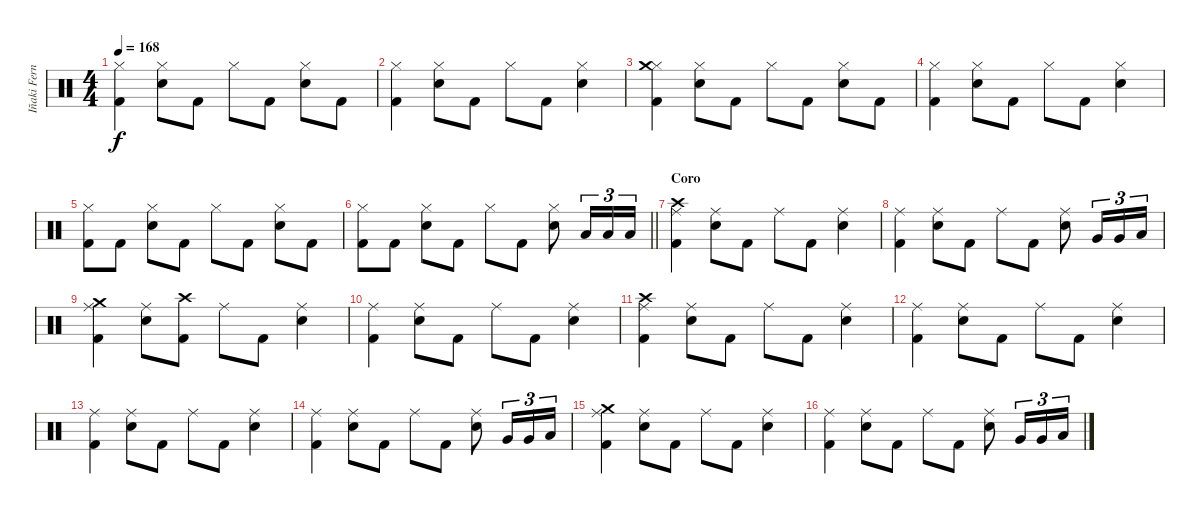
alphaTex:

\track ("Iñaki Fernández" "Iñaki Fern") {instrument percussion}
\staff {score}
\articulation defaults
\ts (4 4)
\tempo 168
\clef neutral
\ks c
("Hi-Hat (closed)" "Kick (hit) 2").4{dy f} ("Hi-Hat (closed)" "Snare (hit) 2").8 "Kick (hit) 2".8 "Hi-Hat (closed)".8 "Kick (hit) 2".8 ("Hi-Hat (closed)" "Snare (hit) 2").8 "Kick (hit) 2".8 |
("Hi-Hat (closed)" "Kick (hit) 2").4 ("Hi-Hat (closed)" "Snare (hit) 2").8 "Kick (hit) 2".8 "Hi-Hat (closed)".8 "Kick (hit) 2".8 ("Hi-Hat (closed)" "Snare (hit) 2").4 |
("Hi-Hat (closed)" "Crash medium (hit)" "Kick (hit) 2").4 ("Hi-Hat (closed)" "Snare (hit) 2").8 "Kick (hit) 2".8 "Hi-Hat (closed)".8 "Kick (hit) 2".8 ("Hi-Hat (closed)" "Snare (hit) 2").8 "Kick (hit) 2".8 |
("Hi-Hat (closed)" "Kick (hit) 2").4 ("Hi-Hat (closed)" "Snare (hit) 2").8 "Kick (hit) 2".8 "Hi-Hat (closed)".8 "Kick (hit) 2".8 ("Hi-Hat (closed)" "Snare (hit) 2").4 |
("Hi-Hat (closed)" "Kick (hit) 2").8 "Kick (hit) 2".8 ("Hi-Hat (closed)" "Snare (hit) 2").8 "Kick (hit) 2".8 "Hi-Hat (closed)".8 "Kick (hit) 2".8 ("Hi-Hat (closed)" "Snare (hit) 2").8 "Kick (hit) 2".8 |
\barLineRight lightlight
("Hi-Hat (closed)" "Kick (hit) 2").8 "Kick (hit) 2".8 ("Hi-Hat (closed)" "Snare (hit) 2").8 "Kick (hit) 2".8 "Hi-Hat (closed)".8 "Kick (hit) 2".8 ("Hi-Hat (closed)" "Snare (hit) 2").8 "Low Floor Tom (hit)".16{tu (3 2)} "Low Floor Tom (hit)".16{tu (3 2)} "Low Floor Tom (hit)".16{tu (3 2)} |
\section ("" "Coro")
("Ride (middle)" "Crash high (hit)" "Kick (hit) 2").4 ("Ride (middle)" "Snare (hit) 2").8 "Kick (hit) 2".8 "Ride (middle)".8 "Kick (hit) 2".8 ("Ride (middle)" "Snare (hit) 2").4 |
("Ride (middle)" "Kick (hit) 2").4 ("Ride (middle)" "Snare (hit) 2").8 "Kick (hit) 2".8 "Ride (middle)".8 "Kick (hit) 2".8 ("Ride (middle)" "Snare (hit) 2").8 "Very Low Tom (hit)".16{tu (3 2)} "Very Low Tom (hit)".16{tu (3 2)} "Low Floor Tom (hit)".16{tu (3 2)} |
("Ride (middle)" "Crash medium (hit)" "Kick (hit) 2").4 ("Ride (middle)" "Snare (hit) 2").8 ("Crash high (hit)" "Kick (hit) 2").8 "Ride (middle)".8 "Kick (hit) 2".8 ("Ride (middle)" "Snare (hit) 2").4 |
("Ride (middle)" "Kick (hit) 2").4 ("Ride (middle)" "Snare (hit) 2").8 "Kick (hit) 2".8 "Ride (middle)".8 "Kick (hit) 2".8 ("Ride (middle)" "Snare (hit) 2").4 |
("Ride (middle)" "Crash high (hit)" "Kick (hit) 2").4 ("Ride (middle)" "Snare (hit) 2").8 "Kick (hit) 2".8 "Ride (middle)".8 "Kick (hit) 2".8 ("Ride (middle)" "Snare (hit) 2").4 |
("Ride (middle)" "Kick (hit) 2").4 ("Ride (middle)" "Snare (hit) 2").8 "Kick (hit) 2".8 "Ride (middle)".8 "Kick (hit) 2".8 ("Ride (middle)" "Snare (hit) 2").4 |
("Ride (middle)" "Kick (hit) 2").4 ("Ride (middle)" "Snare (hit) 2").8 "Kick (hit) 2".8 "Ride (middle)".8 "Kick (hit) 2".8 ("Ride (middle)" "Snare (hit) 2").4 |
("Ride (middle)" "Kick (hit) 2").4 ("Ride (middle)" "Snare (hit) 2").8 "Kick (hit) 2".8 "Ride (middle)".8 "Kick (hit) 2".8 ("Ride (middle)" "Snare (hit) 2").8 "Very Low Tom (hit)".16{tu (3 2)} "Very Low Tom (hit)".16{tu (3 2)} "Low Floor Tom (hit)".16{tu (3 2)} |
("Ride (middle)" "Crash medium (hit)" "Kick (hit) 2").4 ("Ride (middle)" "Snare (hit) 2").8 "Kick (hit) 2".8 "Ride (middle)".8 "Kick (hit) 2".8 ("Ride (middle)" "Snare (hit) 2").4 |
("Ride (middle)" "Kick (hit) 2").4 ("Ride (middle)" "Snare (hit) 2").8 "Kick (hit) 2".8 "Ride (middle)".8 "Kick (hit) 2".8 ("Ride (middle)" "Snare (hit) 2").8 "Very Low Tom (hit)".16{tu (3 2)} "Very Low Tom (hit)".16{tu (3 2)} "Low Floor Tom (hit)".16{tu (3 2)}
